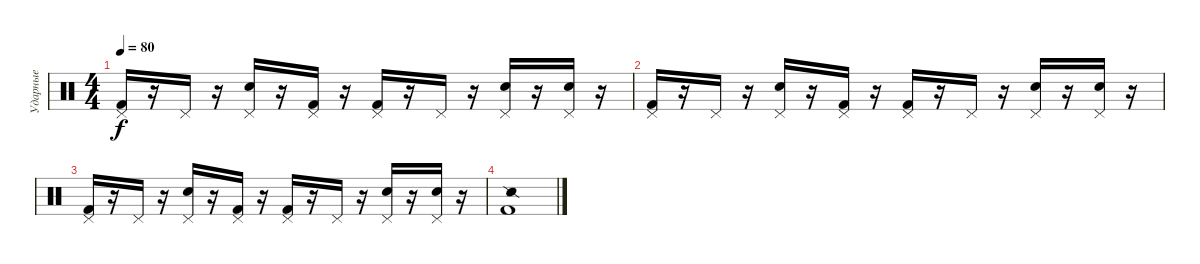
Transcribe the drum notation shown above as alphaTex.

\track ("Ударные" "Ударные") {instrument percussion}
\staff {score}
\articulation defaults
\ts (4 4)
\tempo 80
\clef neutral
\ks c
("Pedal Hi-Hat (hit)" "Kick (hit) 2").16{dy f} r.16 "Pedal Hi-Hat (hit)".16 r.16 ("Pedal Hi-Hat (hit)" "Snare (hit) 2").16 r.16 ("Pedal Hi-Hat (hit)" "Kick (hit) 2").16 r.16 ("Pedal Hi-Hat (hit)" "Kick (hit) 2").16 r.16 "Pedal Hi-Hat (hit)".16 r.16 ("Pedal Hi-Hat (hit)" "Snare (hit) 2").16 r.16 ("Pedal Hi-Hat (hit)" "Snare (hit) 2").16 r.16 |
("Pedal Hi-Hat (hit)" "Kick (hit) 2").16 r.16 "Pedal Hi-Hat (hit)".16 r.16 ("Pedal Hi-Hat (hit)" "Snare (hit) 2").16 r.16 ("Pedal Hi-Hat (hit)" "Kick (hit) 2").16 r.16 ("Pedal Hi-Hat (hit)" "Kick (hit) 2").16 r.16 "Pedal Hi-Hat (hit)".16 r.16 ("Pedal Hi-Hat (hit)" "Snare (hit) 2").16 r.16 ("Pedal Hi-Hat (hit)" "Snare (hit) 2").16 r.16 |
("Pedal Hi-Hat (hit)" "Kick (hit) 2").16 r.16 "Pedal Hi-Hat (hit)".16 r.16 ("Pedal Hi-Hat (hit)" "Snare (hit) 2").16 r.16 ("Pedal Hi-Hat (hit)" "Kick (hit) 2").16 r.16 ("Pedal Hi-Hat (hit)" "Kick (hit) 2").16 r.16 "Pedal Hi-Hat (hit)".16 r.16 ("Pedal Hi-Hat (hit)" "Snare (hit) 2").16 r.16 ("Pedal Hi-Hat (hit)" "Snare (hit) 2").16 r.16 |
("Snare (side stick) 2" "Kick (hit) 2").1
